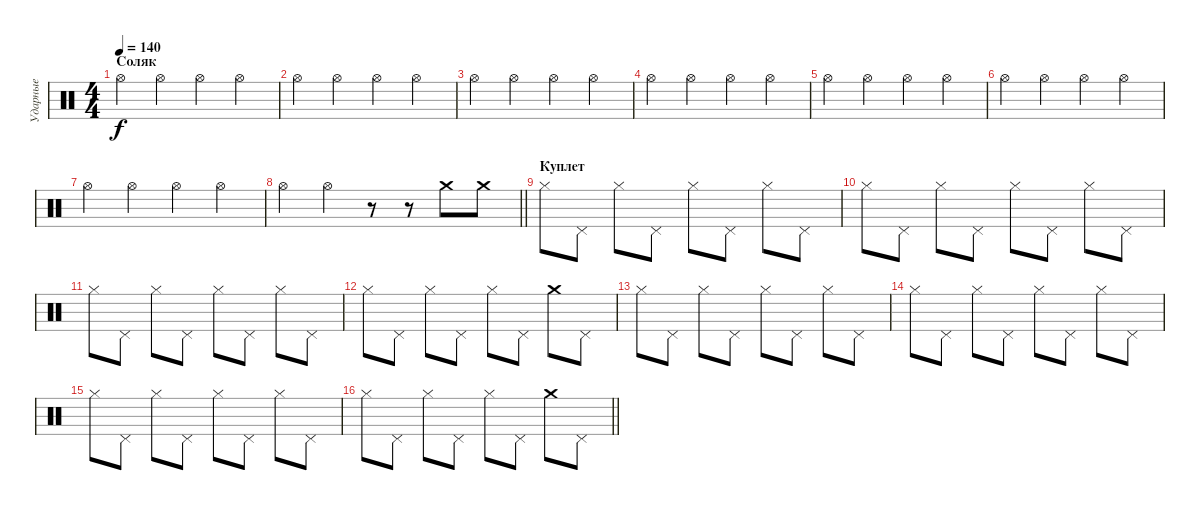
\track ("Ударные" "Ударные") {instrument percussion}
\staff {score}
\articulation defaults
\ts (4 4)
\section ("" "Соляк")
\tempo 140
\clef neutral
\ks c "Hi-Hat (open)".4{dy f} "Hi-Hat (open)".4 "Hi-Hat (open)".4 "Hi-Hat (open)".4
|
"Hi-Hat (open)".4 "Hi-Hat (open)".4 "Hi-Hat (open)".4 "Hi-Hat (open)".4 |
"Hi-Hat (open)".4 "Hi-Hat (open)".4 "Hi-Hat (open)".4 "Hi-Hat (open)".4 |
"Hi-Hat (open)".4 "Hi-Hat (open)".4 "Hi-Hat (open)".4 "Hi-Hat (open)".4 |
"Hi-Hat (open)".4 "Hi-Hat (open)".4 "Hi-Hat (open)".4 "Hi-Hat (open)".4 |
"Hi-Hat (open)".4 "Hi-Hat (open)".4 "Hi-Hat (open)".4 "Hi-Hat (open)".4 |
"Hi-Hat (open)".4 "Hi-Hat (open)".4 "Hi-Hat (open)".4 "Hi-Hat (open)".4 |
\barLineRight lightlight "Hi-Hat (open)".4 "Hi-Hat (open)".4
r.8 r.8 "Crash medium (hit)".8 "Crash medium (hit)".8 |
\section ("" "Куплет")
"Hi-Hat (closed)".8 "Pedal Hi-Hat (hit)".8 "Hi-Hat (closed)".8 "Pedal Hi-Hat (hit)".8 "Hi-Hat (closed)".8 "Pedal Hi-Hat (hit)".8 "Hi-Hat (closed)".8 "Pedal Hi-Hat (hit)".8 |
"Hi-Hat (closed)".8 "Pedal Hi-Hat (hit)".8 "Hi-Hat (closed)".8 "Pedal Hi-Hat (hit)".8 "Hi-Hat (closed)".8 "Pedal Hi-Hat (hit)".8 "Hi-Hat (closed)".8 "Pedal Hi-Hat (hit)".8 |
"Hi-Hat (closed)".8 "Pedal Hi-Hat (hit)".8 "Hi-Hat (closed)".8 "Pedal Hi-Hat (hit)".8 "Hi-Hat (closed)".8 "Pedal Hi-Hat (hit)".8 "Hi-Hat (closed)".8 "Pedal Hi-Hat (hit)".8 |
"Hi-Hat (closed)".8 "Pedal Hi-Hat (hit)".8 "Hi-Hat (closed)".8 "Pedal Hi-Hat (hit)".8 "Hi-Hat (closed)".8 "Pedal Hi-Hat (hit)".8 "Crash medium (hit)".8 "Pedal Hi-Hat (hit)".8 |
"Hi-Hat (closed)".8 "Pedal Hi-Hat (hit)".8 "Hi-Hat (closed)".8 "Pedal Hi-Hat (hit)".8 "Hi-Hat (closed)".8 "Pedal Hi-Hat (hit)".8 "Hi-Hat (closed)".8 "Pedal Hi-Hat (hit)".8 |
"Hi-Hat (closed)".8 "Pedal Hi-Hat (hit)".8 "Hi-Hat (closed)".8 "Pedal Hi-Hat (hit)".8 "Hi-Hat (closed)".8 "Pedal Hi-Hat (hit)".8 "Hi-Hat (closed)".8 "Pedal Hi-Hat (hit)".8 |
"Hi-Hat (closed)".8 "Pedal Hi-Hat (hit)".8 "Hi-Hat (closed)".8 "Pedal Hi-Hat (hit)".8 "Hi-Hat (closed)".8 "Pedal Hi-Hat (hit)".8 "Hi-Hat (closed)".8 "Pedal Hi-Hat (hit)".8 |
\barLineRight lightlight "Hi-Hat (closed)".8 "Pedal Hi-Hat (hit)".8 "Hi-Hat (closed)".8 "Pedal Hi-Hat (hit)".8 "Hi-Hat (closed)".8 "Pedal Hi-Hat (hit)".8 "Crash medium (hit)".8 "Pedal Hi-Hat (hit)".8
